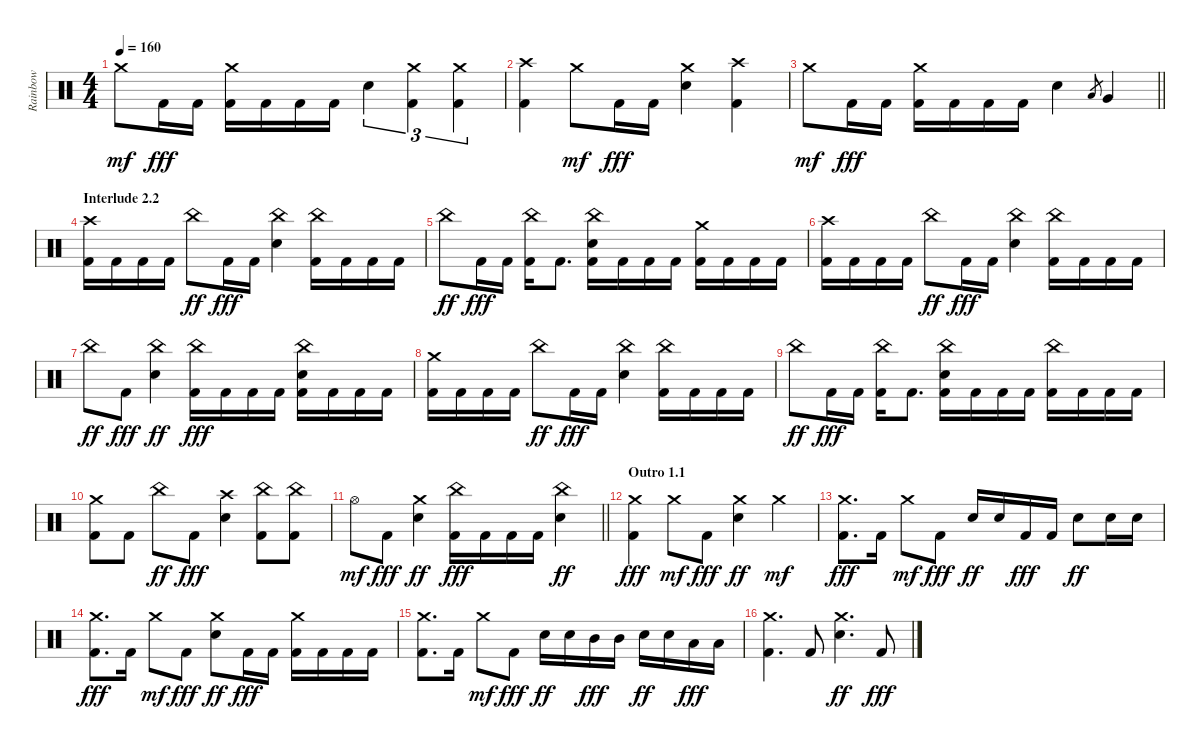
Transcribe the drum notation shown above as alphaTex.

\track ("Rainbow" "Rainbow") {instrument percussion}
\staff {score}
\articulation defaults
\ts (4 4)
\tempo 160
\clef neutral
\ks c "Crash medium (hit)".8{dy mf} "Kick (hit) 2".16{dy fff} "Kick (hit) 2".16
("Crash medium (hit)" "Kick (hit) 2").16 "Kick (hit) 2".16 "Kick (hit) 2".16 "Kick (hit) 2".16 "Electric Snare (hit)".4{tu (3 2)} ("Crash medium (hit)" "Kick (hit) 2").4{tu (3 2)} ("Crash medium (hit)" "Kick (hit) 2").4{tu (3 2)} |
("Crash high (hit)" "Kick (hit) 2").4 "Crash medium (hit)".8{dy mf} "Kick (hit) 2".16{dy fff} "Kick (hit) 2".16 ("Crash medium (hit)" "Electric Snare (hit)").4 ("Crash high (hit)" "Kick (hit) 2").4 |
\barLineRight lightlight "Crash medium (hit)".8{dy mf} "Kick (hit) 2".16{dy fff} "Kick (hit) 2".16
("Crash medium (hit)" "Kick (hit) 2").16 "Kick (hit) 2".16 "Kick (hit) 2".16 "Kick (hit) 2".16 "Electric Snare (hit)".4 "Low Floor Tom (hit)".8{gr} "Very Low Tom (hit)".4 |
\section ("" "Interlude 2.2")
("Crash high (hit)" "Kick (hit) 2").16 "Kick (hit) 2".16 "Kick (hit) 2".16 "Kick (hit) 2".16 "China (hit)".8{dy ff} "Kick (hit) 2".16{dy fff} "Kick (hit) 2".16 ("China (hit)" "Electric Snare (hit)").4 ("China (hit)" "Kick (hit) 2").16 "Kick (hit) 2".16 "Kick (hit) 2".16 "Kick (hit) 2".16 |
"China (hit)".8{dy ff} "Kick (hit) 2".16{dy fff} "Kick (hit) 2".16 ("China (hit)" "Kick (hit) 2").16 "Kick (hit) 2".8{d} ("China (hit)" "Electric Snare (hit)" "Kick (hit) 2").16 "Kick (hit) 2".16 "Kick (hit) 2".16 "Kick (hit) 2".16 ("Crash medium (hit)" "Kick (hit) 2").16 "Kick (hit) 2".16 "Kick (hit) 2".16 "Kick (hit) 2".16 |
("Crash high (hit)" "Kick (hit) 2").16 "Kick (hit) 2".16 "Kick (hit) 2".16 "Kick (hit) 2".16 "China (hit)".8{dy ff} "Kick (hit) 2".16{dy fff} "Kick (hit) 2".16 ("China (hit)" "Electric Snare (hit)").4 ("China (hit)" "Kick (hit) 2").16 "Kick (hit) 2".16 "Kick (hit) 2".16 "Kick (hit) 2".16 |
"China (hit)".8{dy ff} "Kick (hit) 2".8{dy fff} ("China (hit)" "Electric Snare (hit)").4{dy ff} ("China (hit)" "Kick (hit) 2").16{dy fff} "Kick (hit) 2".16 "Kick (hit) 2".16 "Kick (hit) 2".16 ("China (hit)" "Electric Snare (hit)" "Kick (hit) 2").16 "Kick (hit) 2".16 "Kick (hit) 2".16 "Kick (hit) 2".16 |
("Crash medium (hit)" "Kick (hit) 2").16 "Kick (hit) 2".16 "Kick (hit) 2".16 "Kick (hit) 2".16 "China (hit)".8{dy ff} "Kick (hit) 2".16{dy fff} "Kick (hit) 2".16 ("China (hit)" "Electric Snare (hit)").4 ("China (hit)" "Kick (hit) 2").16 "Kick (hit) 2".16 "Kick (hit) 2".16 "Kick (hit) 2".16 |
"China (hit)".8{dy ff} "Kick (hit) 2".16{dy fff} "Kick (hit) 2".16 ("China (hit)" "Kick (hit) 2").16 "Kick (hit) 2".8{d} ("China (hit)" "Electric Snare (hit)" "Kick (hit) 2").16 "Kick (hit) 2".16 "Kick (hit) 2".16 "Kick (hit) 2".16 ("China (hit)" "Kick (hit) 2").16 "Kick (hit) 2".16 "Kick (hit) 2".16 "Kick (hit) 2".16 |
("Crash medium (hit)" "Kick (hit) 2").8 "Kick (hit) 2".8 "China (hit)".8{dy ff} "Kick (hit) 2".8{dy fff} ("Crash high (hit)" "Electric Snare (hit)").4 ("China (hit)" "Kick (hit) 2").8 ("China (hit)" "Kick (hit) 2").8 |
\barLineRight lightlight "Hi-Hat (open)".8{dy mf} "Kick (hit) 2".8{dy fff}
("Crash medium (hit)" "Electric Snare (hit)").4{dy ff} ("China (hit)" "Kick (hit) 2").16{dy fff} "Kick (hit) 2".16 "Kick (hit) 2".16 "Kick (hit) 2".16 ("China (hit)" "Electric Snare (hit)").4{dy ff} |
\section ("" "Outro 1.1")
("Crash medium (hit)" "Kick (hit) 2").4{dy fff} "Crash medium (hit)".8{dy mf} "Kick (hit) 2".8{dy fff} ("Crash medium (hit)" "Electric Snare (hit)").4{dy ff} "Crash medium (hit)".4{dy mf} |
("Crash medium (hit)" "Kick (hit) 2").8{d dy fff} "Kick (hit) 2".16 "Crash medium (hit)".8{dy mf} "Kick (hit) 2".8{dy fff} "Electric Snare (hit)".16{dy ff} "Electric Snare (hit)".16 "Kick (hit) 2".16{dy fff} "Kick (hit) 2".16 "Electric Snare (hit)".8{dy ff} "Electric Snare (hit)".16 "Electric Snare (hit)".16 |
("Crash medium (hit)" "Kick (hit) 2").8{d dy fff} "Kick (hit) 2".16 "Crash medium (hit)".8{dy mf} "Kick (hit) 2".8{dy fff} ("Crash medium (hit)" "Electric Snare (hit)").8{dy ff} "Kick (hit) 2".16{dy fff} "Kick (hit) 2".16 ("Crash medium (hit)" "Kick (hit) 2").16 "Kick (hit) 2".16 "Kick (hit) 2".16 "Kick (hit) 2".16 |
("Crash medium (hit)" "Kick (hit) 2").8{d} "Kick (hit) 2".16 "Crash medium (hit)".8{dy mf} "Kick (hit) 2".8{dy fff} "Electric Snare (hit)".16{dy ff} "Electric Snare (hit)".16 "Mid Tom (hit)".16{dy fff} "Mid Tom (hit)".16 "Electric Snare (hit)".16{dy ff} "Electric Snare (hit)".16 "Low Tom (hit)".16{dy fff} "Low Tom (hit)".16 |
("Crash medium (hit)" "Kick (hit) 2").4{d} "Kick (hit) 2".8 ("Crash medium (hit)" "Electric Snare (hit)").4{d dy ff} "Kick (hit) 2".8{dy fff}
